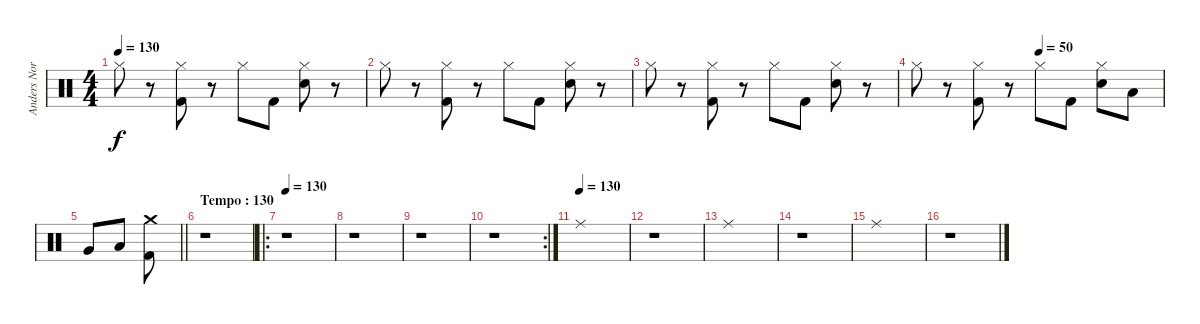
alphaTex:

\track ("Anders Nordin" "Anders Nor") {instrument percussion}
\staff {score}
\articulation defaults
\ts (4 4)
\tempo 130
\clef neutral
\ks c "Hi-Hat (closed)".8{dy f}
r.8 ("Hi-Hat (closed)" "Kick (hit) 2").8 r.8 "Hi-Hat (closed)".8 "Kick (hit) 2".8 ("Hi-Hat (closed)" "Snare (hit) 2").8 r.8 |
"Hi-Hat (closed)".8 r.8 ("Hi-Hat (closed)" "Kick (hit) 2").8 r.8 "Hi-Hat (closed)".8 "Kick (hit) 2".8 ("Hi-Hat (closed)" "Snare (hit) 2").8 r.8 |
"Hi-Hat (closed)".8 r.8 ("Hi-Hat (closed)" "Kick (hit) 2").8 r.8 "Hi-Hat (closed)".8 "Kick (hit) 2".8 ("Hi-Hat (closed)" "Snare (hit) 2").8 r.8 |
\tempo (50 0.5)
"Hi-Hat (closed)".8 r.8 ("Hi-Hat (closed)" "Kick (hit) 2").8 r.8 "Hi-Hat (closed)".8 "Kick (hit) 2".8 ("Hi-Hat (closed)" "Snare (hit) 2").8 "Low Tom (hit)".8 |
\barLineRight lightlight "Very Low Tom (hit)".8 "Low Floor Tom (hit)".8
("Crash medium (hit)" "Kick (hit) 2").8 |
\section ("" "Tempo : 130")
r.1 |
\ro
\tempo 130
r.1 |
r.1 |
r.1 |
\rc 2
r.1 |
\tempo (130)
"Ride (middle)".1 |
r.1 |
"Ride (middle)".1 |
r.1 |
"Ride (middle)".1 |
r.1
